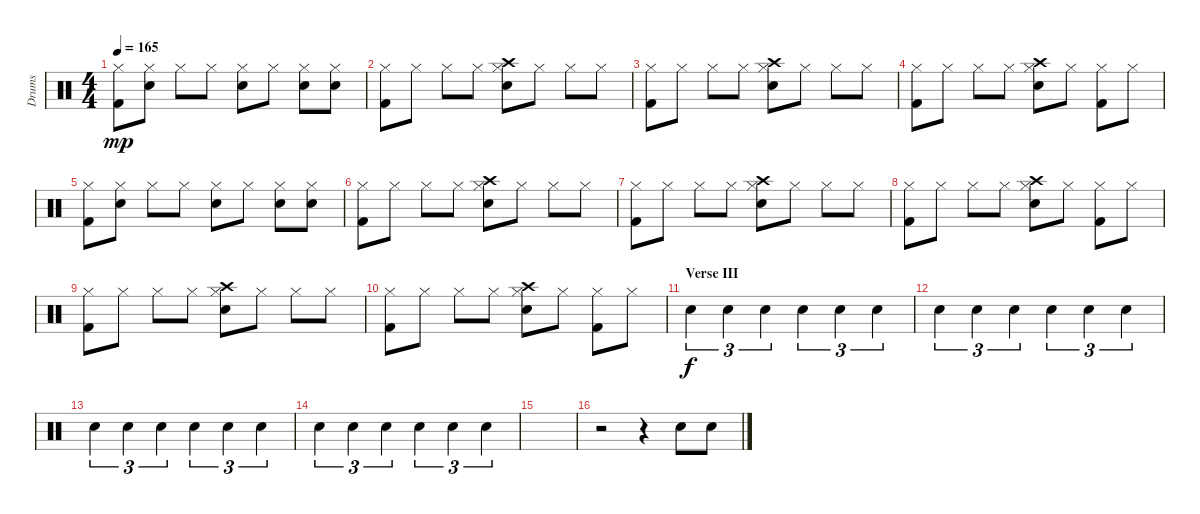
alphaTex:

\track ("Drums" "Drums") {instrument percussion}
\staff {score}
\articulation defaults
\ts (4 4)
\tempo 165
\clef neutral
\ks c
("Hi-Hat (closed)" "Kick (hit) 2").8{dy mp} ("Hi-Hat (closed)" "Snare (hit) 2").8 "Hi-Hat (closed)".8 "Hi-Hat (closed)".8 ("Hi-Hat (closed)" "Snare (hit) 2").8 "Hi-Hat (closed)".8 ("Hi-Hat (closed)" "Electric Snare (hit)").8 ("Hi-Hat (closed)" "Electric Snare (hit)").8 |
("Hi-Hat (closed)" "Kick (hit) 2").8 "Hi-Hat (closed)".8 "Hi-Hat (closed)".8 "Hi-Hat (closed)".8 ("Hi-Hat (closed)" "Snare (hit) 2" "Crash high (hit)").8 "Hi-Hat (closed)".8 "Hi-Hat (closed)".8 "Hi-Hat (closed)".8 |
("Hi-Hat (closed)" "Kick (hit) 2").8 "Hi-Hat (closed)".8 "Hi-Hat (closed)".8 "Hi-Hat (closed)".8 ("Hi-Hat (closed)" "Snare (hit) 2" "Crash high (hit)").8 "Hi-Hat (closed)".8 "Hi-Hat (closed)".8 "Hi-Hat (closed)".8 |
("Hi-Hat (closed)" "Kick (hit) 2").8 "Hi-Hat (closed)".8 "Hi-Hat (closed)".8 "Hi-Hat (closed)".8 ("Hi-Hat (closed)" "Snare (hit) 2" "Crash high (hit)").8 "Hi-Hat (closed)".8 ("Hi-Hat (closed)" "Kick (hit) 2").8 "Hi-Hat (closed)".8 |
("Hi-Hat (closed)" "Kick (hit) 2").8 ("Hi-Hat (closed)" "Snare (hit) 2").8 "Hi-Hat (closed)".8 "Hi-Hat (closed)".8 ("Hi-Hat (closed)" "Snare (hit) 2").8 "Hi-Hat (closed)".8 ("Hi-Hat (closed)" "Electric Snare (hit)").8 ("Hi-Hat (closed)" "Electric Snare (hit)").8 |
("Hi-Hat (closed)" "Kick (hit) 2").8 "Hi-Hat (closed)".8 "Hi-Hat (closed)".8 "Hi-Hat (closed)".8 ("Hi-Hat (closed)" "Snare (hit) 2" "Crash high (hit)").8 "Hi-Hat (closed)".8 "Hi-Hat (closed)".8 "Hi-Hat (closed)".8 |
("Hi-Hat (closed)" "Kick (hit) 2").8 "Hi-Hat (closed)".8 "Hi-Hat (closed)".8 "Hi-Hat (closed)".8 ("Hi-Hat (closed)" "Snare (hit) 2" "Crash high (hit)").8 "Hi-Hat (closed)".8 "Hi-Hat (closed)".8 "Hi-Hat (closed)".8 |
("Hi-Hat (closed)" "Kick (hit) 2").8 "Hi-Hat (closed)".8 "Hi-Hat (closed)".8 "Hi-Hat (closed)".8 ("Hi-Hat (closed)" "Snare (hit) 2" "Crash high (hit)").8 "Hi-Hat (closed)".8 ("Hi-Hat (closed)" "Kick (hit) 2").8 "Hi-Hat (closed)".8 |
("Hi-Hat (closed)" "Kick (hit) 2").8 "Hi-Hat (closed)".8 "Hi-Hat (closed)".8 "Hi-Hat (closed)".8 ("Hi-Hat (closed)" "Snare (hit) 2" "Crash high (hit)").8 "Hi-Hat (closed)".8 "Hi-Hat (closed)".8 "Hi-Hat (closed)".8 |
("Hi-Hat (closed)" "Kick (hit) 2").8 "Hi-Hat (closed)".8 "Hi-Hat (closed)".8 "Hi-Hat (closed)".8 ("Hi-Hat (closed)" "Snare (hit) 2" "Crash high (hit)").8 "Hi-Hat (closed)".8 ("Hi-Hat (closed)" "Kick (hit) 2").8 "Hi-Hat (closed)".8 |
\section ("" "Verse III")
"Snare (hit) 2".4{tu (3 2) dy f} "Snare (hit) 2".4{tu (3 2)} "Snare (hit) 2".4{tu (3 2)} "Snare (hit) 2".4{tu (3 2)} "Snare (hit) 2".4{tu (3 2)} "Snare (hit) 2".4{tu (3 2)} |
"Snare (hit) 2".4{tu (3 2)} "Snare (hit) 2".4{tu (3 2)} "Snare (hit) 2".4{tu (3 2)} "Snare (hit) 2".4{tu (3 2)} "Snare (hit) 2".4{tu (3 2)} "Snare (hit) 2".4{tu (3 2)} |
"Snare (hit) 2".4{tu (3 2)} "Snare (hit) 2".4{tu (3 2)} "Snare (hit) 2".4{tu (3 2)} "Snare (hit) 2".4{tu (3 2)} "Snare (hit) 2".4{tu (3 2)} "Snare (hit) 2".4{tu (3 2)} |
"Snare (hit) 2".4{tu (3 2)} "Snare (hit) 2".4{tu (3 2)} "Snare (hit) 2".4{tu (3 2)} "Snare (hit) 2".4{tu (3 2)} "Snare (hit) 2".4{tu (3 2)} "Snare (hit) 2".4{tu (3 2)} |
|
r.2 r.4 "Electric Snare (hit)".8 "Electric Snare (hit)".8
